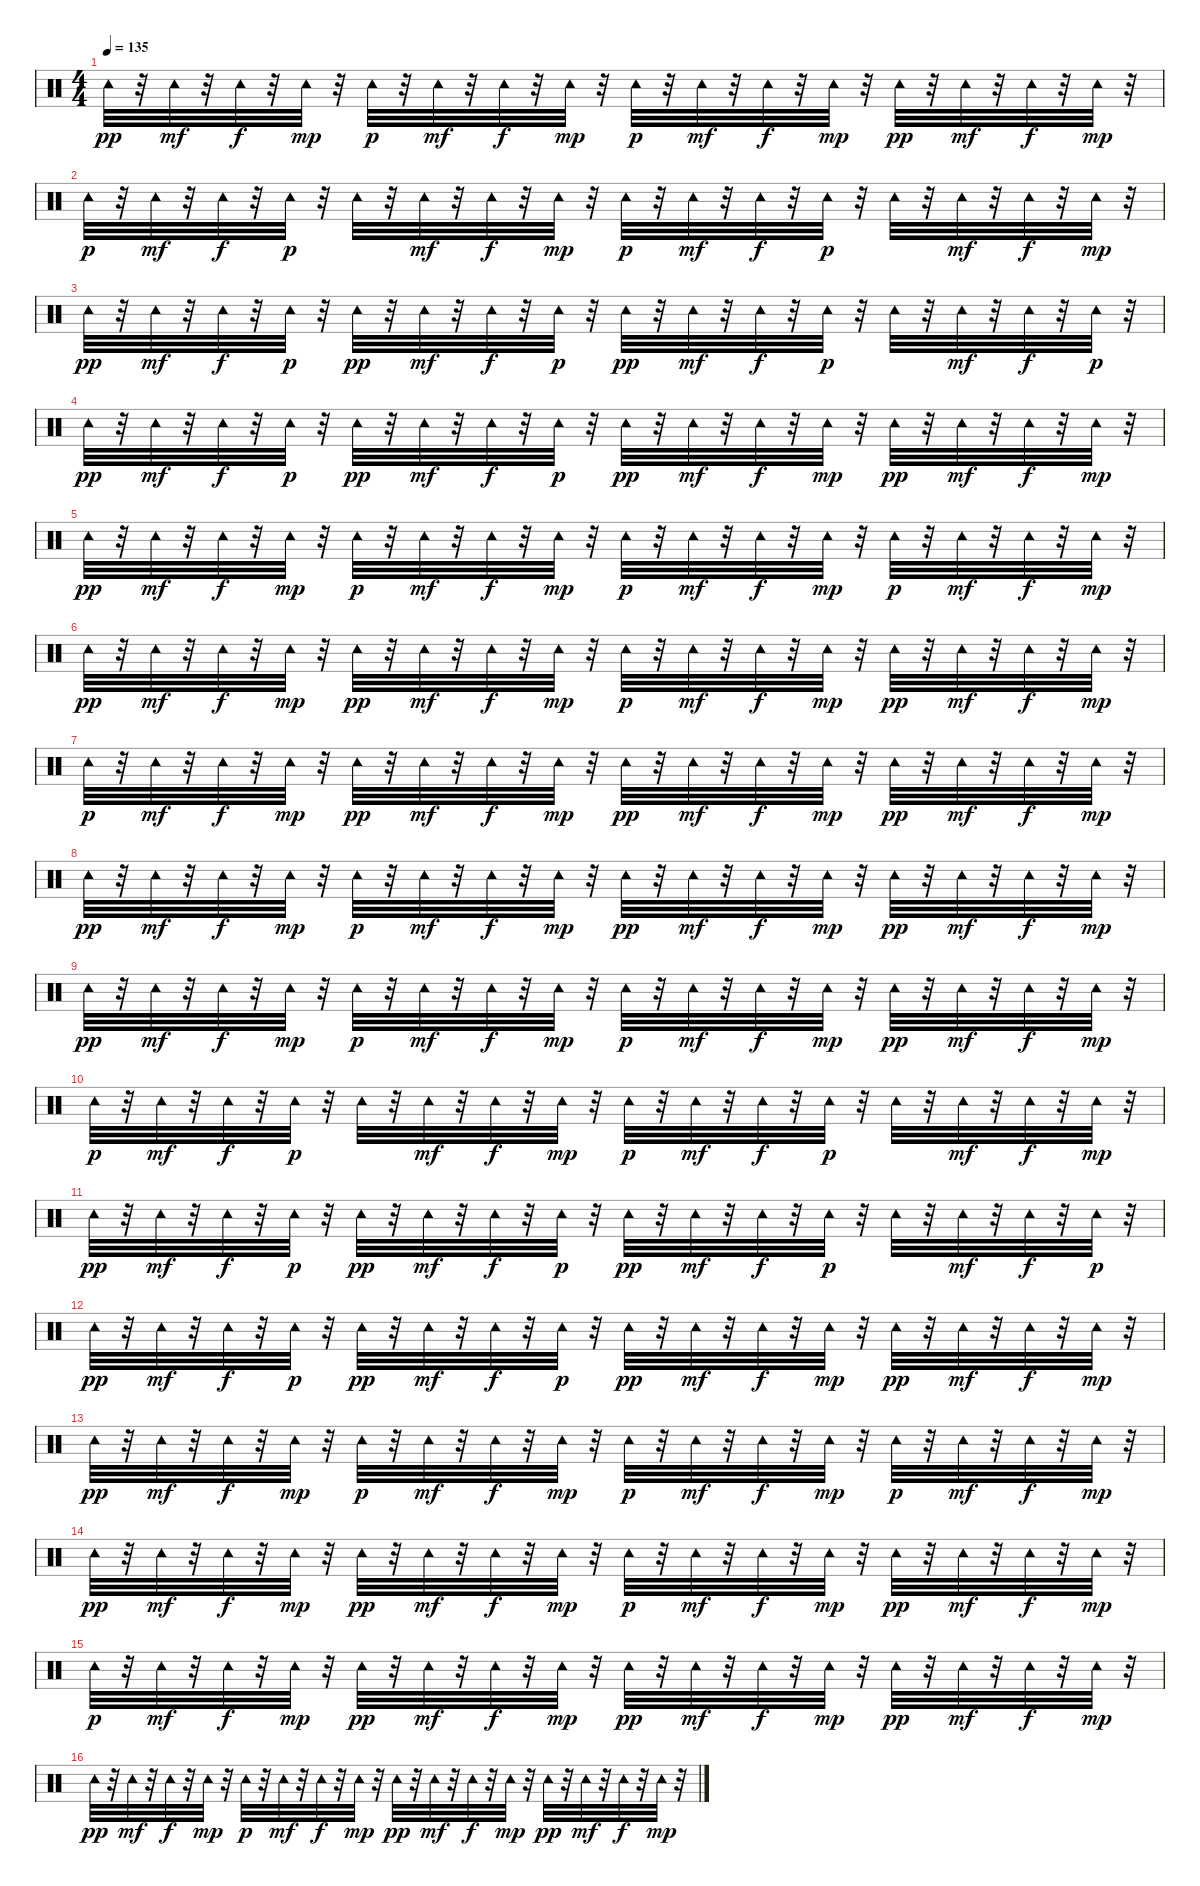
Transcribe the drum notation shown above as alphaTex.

\track "" {instrument percussion}
\staff {score}
\articulation defaults
\ts (4 4)
\tempo 135
\clef neutral
\ks c "Tambourine (hit)".32{dy pp}
r.32 "Tambourine (hit)".32{dy mf} r.32 "Tambourine (hit)".32{dy f} r.32 "Tambourine (hit)".32{dy mp} r.32 "Tambourine (hit)".32{dy p} r.32 "Tambourine (hit)".32{dy mf} r.32 "Tambourine (hit)".32{dy f} r.32 "Tambourine (hit)".32{dy mp} r.32 "Tambourine (hit)".32{dy p} r.32 "Tambourine (hit)".32{dy mf} r.32 "Tambourine (hit)".32{dy f} r.32 "Tambourine (hit)".32{dy mp} r.32 "Tambourine (hit)".32{dy pp} r.32 "Tambourine (hit)".32{dy mf} r.32 "Tambourine (hit)".32{dy f} r.32 "Tambourine (hit)".32{dy mp} r.32 |
"Tambourine (hit)".32{dy p} r.32 "Tambourine (hit)".32{dy mf} r.32 "Tambourine (hit)".32{dy f} r.32 "Tambourine (hit)".32{dy p} r.32 "Tambourine (hit)".32 r.32 "Tambourine (hit)".32{dy mf} r.32 "Tambourine (hit)".32{dy f} r.32 "Tambourine (hit)".32{dy mp} r.32 "Tambourine (hit)".32{dy p} r.32 "Tambourine (hit)".32{dy mf} r.32 "Tambourine (hit)".32{dy f} r.32 "Tambourine (hit)".32{dy p} r.32 "Tambourine (hit)".32 r.32 "Tambourine (hit)".32{dy mf} r.32 "Tambourine (hit)".32{dy f} r.32 "Tambourine (hit)".32{dy mp} r.32 |
"Tambourine (hit)".32{dy pp} r.32 "Tambourine (hit)".32{dy mf} r.32 "Tambourine (hit)".32{dy f} r.32 "Tambourine (hit)".32{dy p} r.32 "Tambourine (hit)".32{dy pp} r.32 "Tambourine (hit)".32{dy mf} r.32 "Tambourine (hit)".32{dy f} r.32 "Tambourine (hit)".32{dy p} r.32 "Tambourine (hit)".32{dy pp} r.32 "Tambourine (hit)".32{dy mf} r.32 "Tambourine (hit)".32{dy f} r.32 "Tambourine (hit)".32{dy p} r.32 "Tambourine (hit)".32 r.32 "Tambourine (hit)".32{dy mf} r.32 "Tambourine (hit)".32{dy f} r.32 "Tambourine (hit)".32{dy p} r.32 |
"Tambourine (hit)".32{dy pp} r.32 "Tambourine (hit)".32{dy mf} r.32 "Tambourine (hit)".32{dy f} r.32 "Tambourine (hit)".32{dy p} r.32 "Tambourine (hit)".32{dy pp} r.32 "Tambourine (hit)".32{dy mf} r.32 "Tambourine (hit)".32{dy f} r.32 "Tambourine (hit)".32{dy p} r.32 "Tambourine (hit)".32{dy pp} r.32 "Tambourine (hit)".32{dy mf} r.32 "Tambourine (hit)".32{dy f} r.32 "Tambourine (hit)".32{dy mp} r.32 "Tambourine (hit)".32{dy pp} r.32 "Tambourine (hit)".32{dy mf} r.32 "Tambourine (hit)".32{dy f} r.32 "Tambourine (hit)".32{dy mp} r.32 |
"Tambourine (hit)".32{dy pp} r.32 "Tambourine (hit)".32{dy mf} r.32 "Tambourine (hit)".32{dy f} r.32 "Tambourine (hit)".32{dy mp} r.32 "Tambourine (hit)".32{dy p} r.32 "Tambourine (hit)".32{dy mf} r.32 "Tambourine (hit)".32{dy f} r.32 "Tambourine (hit)".32{dy mp} r.32 "Tambourine (hit)".32{dy p} r.32 "Tambourine (hit)".32{dy mf} r.32 "Tambourine (hit)".32{dy f} r.32 "Tambourine (hit)".32{dy mp} r.32 "Tambourine (hit)".32{dy p} r.32 "Tambourine (hit)".32{dy mf} r.32 "Tambourine (hit)".32{dy f} r.32 "Tambourine (hit)".32{dy mp} r.32 |
"Tambourine (hit)".32{dy pp} r.32 "Tambourine (hit)".32{dy mf} r.32 "Tambourine (hit)".32{dy f} r.32 "Tambourine (hit)".32{dy mp} r.32 "Tambourine (hit)".32{dy pp} r.32 "Tambourine (hit)".32{dy mf} r.32 "Tambourine (hit)".32{dy f} r.32 "Tambourine (hit)".32{dy mp} r.32 "Tambourine (hit)".32{dy p} r.32 "Tambourine (hit)".32{dy mf} r.32 "Tambourine (hit)".32{dy f} r.32 "Tambourine (hit)".32{dy mp} r.32 "Tambourine (hit)".32{dy pp} r.32 "Tambourine (hit)".32{dy mf} r.32 "Tambourine (hit)".32{dy f} r.32 "Tambourine (hit)".32{dy mp} r.32 |
"Tambourine (hit)".32{dy p} r.32 "Tambourine (hit)".32{dy mf} r.32 "Tambourine (hit)".32{dy f} r.32 "Tambourine (hit)".32{dy mp} r.32 "Tambourine (hit)".32{dy pp} r.32 "Tambourine (hit)".32{dy mf} r.32 "Tambourine (hit)".32{dy f} r.32 "Tambourine (hit)".32{dy mp} r.32 "Tambourine (hit)".32{dy pp} r.32 "Tambourine (hit)".32{dy mf} r.32 "Tambourine (hit)".32{dy f} r.32 "Tambourine (hit)".32{dy mp} r.32 "Tambourine (hit)".32{dy pp} r.32 "Tambourine (hit)".32{dy mf} r.32 "Tambourine (hit)".32{dy f} r.32 "Tambourine (hit)".32{dy mp} r.32 |
"Tambourine (hit)".32{dy pp} r.32 "Tambourine (hit)".32{dy mf} r.32 "Tambourine (hit)".32{dy f} r.32 "Tambourine (hit)".32{dy mp} r.32 "Tambourine (hit)".32{dy p} r.32 "Tambourine (hit)".32{dy mf} r.32 "Tambourine (hit)".32{dy f} r.32 "Tambourine (hit)".32{dy mp} r.32 "Tambourine (hit)".32{dy pp} r.32 "Tambourine (hit)".32{dy mf} r.32 "Tambourine (hit)".32{dy f} r.32 "Tambourine (hit)".32{dy mp} r.32 "Tambourine (hit)".32{dy pp} r.32 "Tambourine (hit)".32{dy mf} r.32 "Tambourine (hit)".32{dy f} r.32 "Tambourine (hit)".32{dy mp} r.32 |
"Tambourine (hit)".32{dy pp} r.32 "Tambourine (hit)".32{dy mf} r.32 "Tambourine (hit)".32{dy f} r.32 "Tambourine (hit)".32{dy mp} r.32 "Tambourine (hit)".32{dy p} r.32 "Tambourine (hit)".32{dy mf} r.32 "Tambourine (hit)".32{dy f} r.32 "Tambourine (hit)".32{dy mp} r.32 "Tambourine (hit)".32{dy p} r.32 "Tambourine (hit)".32{dy mf} r.32 "Tambourine (hit)".32{dy f} r.32 "Tambourine (hit)".32{dy mp} r.32 "Tambourine (hit)".32{dy pp} r.32 "Tambourine (hit)".32{dy mf} r.32 "Tambourine (hit)".32{dy f} r.32 "Tambourine (hit)".32{dy mp} r.32 |
"Tambourine (hit)".32{dy p} r.32 "Tambourine (hit)".32{dy mf} r.32 "Tambourine (hit)".32{dy f} r.32 "Tambourine (hit)".32{dy p} r.32 "Tambourine (hit)".32 r.32 "Tambourine (hit)".32{dy mf} r.32 "Tambourine (hit)".32{dy f} r.32 "Tambourine (hit)".32{dy mp} r.32 "Tambourine (hit)".32{dy p} r.32 "Tambourine (hit)".32{dy mf} r.32 "Tambourine (hit)".32{dy f} r.32 "Tambourine (hit)".32{dy p} r.32 "Tambourine (hit)".32 r.32 "Tambourine (hit)".32{dy mf} r.32 "Tambourine (hit)".32{dy f} r.32 "Tambourine (hit)".32{dy mp} r.32 |
"Tambourine (hit)".32{dy pp} r.32 "Tambourine (hit)".32{dy mf} r.32 "Tambourine (hit)".32{dy f} r.32 "Tambourine (hit)".32{dy p} r.32 "Tambourine (hit)".32{dy pp} r.32 "Tambourine (hit)".32{dy mf} r.32 "Tambourine (hit)".32{dy f} r.32 "Tambourine (hit)".32{dy p} r.32 "Tambourine (hit)".32{dy pp} r.32 "Tambourine (hit)".32{dy mf} r.32 "Tambourine (hit)".32{dy f} r.32 "Tambourine (hit)".32{dy p} r.32 "Tambourine (hit)".32 r.32 "Tambourine (hit)".32{dy mf} r.32 "Tambourine (hit)".32{dy f} r.32 "Tambourine (hit)".32{dy p} r.32 |
"Tambourine (hit)".32{dy pp} r.32 "Tambourine (hit)".32{dy mf} r.32 "Tambourine (hit)".32{dy f} r.32 "Tambourine (hit)".32{dy p} r.32 "Tambourine (hit)".32{dy pp} r.32 "Tambourine (hit)".32{dy mf} r.32 "Tambourine (hit)".32{dy f} r.32 "Tambourine (hit)".32{dy p} r.32 "Tambourine (hit)".32{dy pp} r.32 "Tambourine (hit)".32{dy mf} r.32 "Tambourine (hit)".32{dy f} r.32 "Tambourine (hit)".32{dy mp} r.32 "Tambourine (hit)".32{dy pp} r.32 "Tambourine (hit)".32{dy mf} r.32 "Tambourine (hit)".32{dy f} r.32 "Tambourine (hit)".32{dy mp} r.32 |
"Tambourine (hit)".32{dy pp} r.32 "Tambourine (hit)".32{dy mf} r.32 "Tambourine (hit)".32{dy f} r.32 "Tambourine (hit)".32{dy mp} r.32 "Tambourine (hit)".32{dy p} r.32 "Tambourine (hit)".32{dy mf} r.32 "Tambourine (hit)".32{dy f} r.32 "Tambourine (hit)".32{dy mp} r.32 "Tambourine (hit)".32{dy p} r.32 "Tambourine (hit)".32{dy mf} r.32 "Tambourine (hit)".32{dy f} r.32 "Tambourine (hit)".32{dy mp} r.32 "Tambourine (hit)".32{dy p} r.32 "Tambourine (hit)".32{dy mf} r.32 "Tambourine (hit)".32{dy f} r.32 "Tambourine (hit)".32{dy mp} r.32 |
"Tambourine (hit)".32{dy pp} r.32 "Tambourine (hit)".32{dy mf} r.32 "Tambourine (hit)".32{dy f} r.32 "Tambourine (hit)".32{dy mp} r.32 "Tambourine (hit)".32{dy pp} r.32 "Tambourine (hit)".32{dy mf} r.32 "Tambourine (hit)".32{dy f} r.32 "Tambourine (hit)".32{dy mp} r.32 "Tambourine (hit)".32{dy p} r.32 "Tambourine (hit)".32{dy mf} r.32 "Tambourine (hit)".32{dy f} r.32 "Tambourine (hit)".32{dy mp} r.32 "Tambourine (hit)".32{dy pp} r.32 "Tambourine (hit)".32{dy mf} r.32 "Tambourine (hit)".32{dy f} r.32 "Tambourine (hit)".32{dy mp} r.32 |
"Tambourine (hit)".32{dy p} r.32 "Tambourine (hit)".32{dy mf} r.32 "Tambourine (hit)".32{dy f} r.32 "Tambourine (hit)".32{dy mp} r.32 "Tambourine (hit)".32{dy pp} r.32 "Tambourine (hit)".32{dy mf} r.32 "Tambourine (hit)".32{dy f} r.32 "Tambourine (hit)".32{dy mp} r.32 "Tambourine (hit)".32{dy pp} r.32 "Tambourine (hit)".32{dy mf} r.32 "Tambourine (hit)".32{dy f} r.32 "Tambourine (hit)".32{dy mp} r.32 "Tambourine (hit)".32{dy pp} r.32 "Tambourine (hit)".32{dy mf} r.32 "Tambourine (hit)".32{dy f} r.32 "Tambourine (hit)".32{dy mp} r.32 |
"Tambourine (hit)".32{dy pp} r.32 "Tambourine (hit)".32{dy mf} r.32 "Tambourine (hit)".32{dy f} r.32 "Tambourine (hit)".32{dy mp} r.32 "Tambourine (hit)".32{dy p} r.32 "Tambourine (hit)".32{dy mf} r.32 "Tambourine (hit)".32{dy f} r.32 "Tambourine (hit)".32{dy mp} r.32 "Tambourine (hit)".32{dy pp} r.32 "Tambourine (hit)".32{dy mf} r.32 "Tambourine (hit)".32{dy f} r.32 "Tambourine (hit)".32{dy mp} r.32 "Tambourine (hit)".32{dy pp} r.32 "Tambourine (hit)".32{dy mf} r.32 "Tambourine (hit)".32{dy f} r.32 "Tambourine (hit)".32{dy mp} r.32
